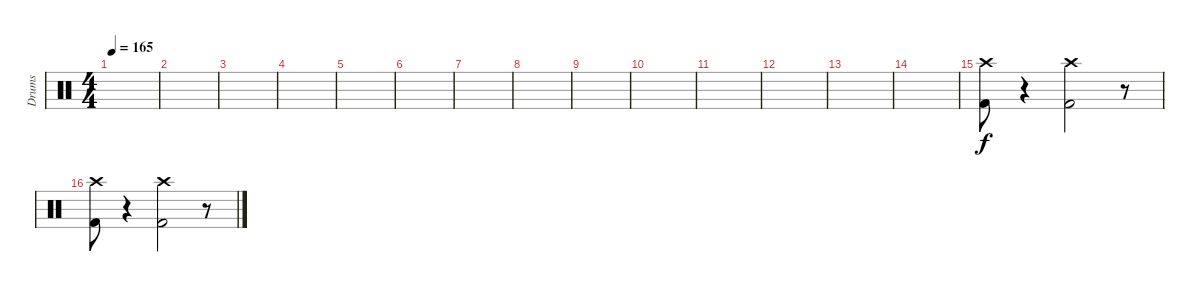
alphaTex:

\track ("Drums" "Drums") {instrument percussion}
\staff {score}
\articulation defaults
\ts (4 4)
\tempo 165
\clef neutral
\ks c
|
|
|
|
|
|
|
|
|
|
|
|
|
|
("Crash high (hit)" "Kick (hit) 2").8 r.4{volume 0} ("Crash high (hit)" "Kick (hit) 2").2{volume 13} r.8 |
("Crash high (hit)" "Kick (hit) 2").8 r.4{volume 0} ("Crash high (hit)" "Kick (hit) 2").2{volume 13} r.8
